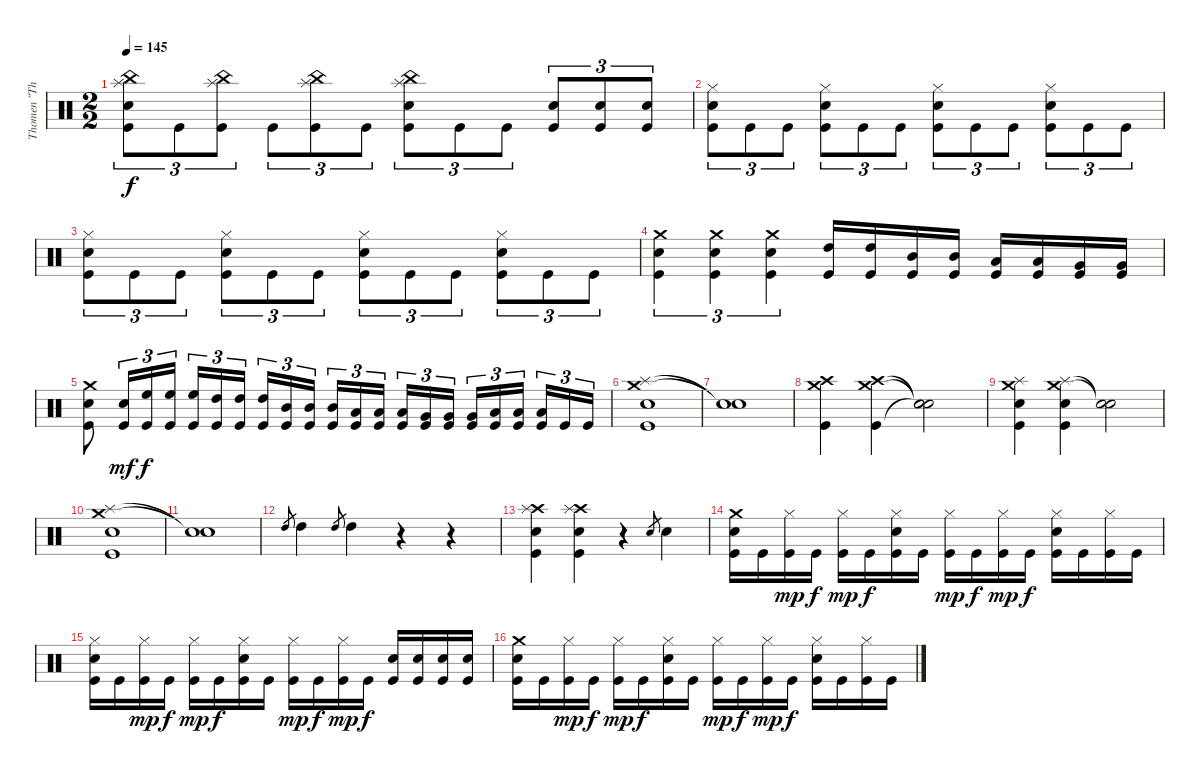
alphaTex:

\track ("Thomen \"The Omen\" Stauch" "Thomen \"Th") {instrument percussion}
\staff {score}
\articulation defaults
\ts (2 2)
\tempo 145
\clef neutral
\ks c
("Splash (hit)" "China (hit)" "Snare (hit) 2" "Kick (hit)").8{tu (3 2) dy f} "Kick (hit)".8{tu (3 2)} ("Splash (hit)" "China (hit)" "Kick (hit)").8{tu (3 2)} "Kick (hit)".8{tu (3 2)} ("Splash (hit)" "China (hit)" "Kick (hit)").8{tu (3 2)} "Kick (hit)".8{tu (3 2)} ("Splash (hit)" "China (hit)" "Snare (hit) 2" "Kick (hit)").8{tu (3 2)} "Kick (hit)".8{tu (3 2)} "Kick (hit)".8{tu (3 2)} ("Snare (hit) 2" "Kick (hit)").8{tu (3 2)} ("Snare (hit) 2" "Kick (hit)").8{tu (3 2)} ("Snare (hit) 2" "Kick (hit)").8{tu (3 2)} |
("Hi-Hat (closed)" "Snare (hit) 2" "Kick (hit)").8{tu (3 2)} "Kick (hit)".8{tu (3 2)} "Kick (hit)".8{tu (3 2)} ("Hi-Hat (closed)" "Snare (hit) 2" "Kick (hit)").8{tu (3 2)} "Kick (hit)".8{tu (3 2)} "Kick (hit)".8{tu (3 2)} ("Hi-Hat (closed)" "Snare (hit) 2" "Kick (hit)").8{tu (3 2)} "Kick (hit)".8{tu (3 2)} "Kick (hit)".8{tu (3 2)} ("Hi-Hat (closed)" "Snare (hit) 2" "Kick (hit)").8{tu (3 2)} "Kick (hit)".8{tu (3 2)} "Kick (hit)".8{tu (3 2)} |
("Hi-Hat (closed)" "Snare (hit) 2" "Kick (hit)").8{tu (3 2)} "Kick (hit)".8{tu (3 2)} "Kick (hit)".8{tu (3 2)} ("Hi-Hat (closed)" "Snare (hit) 2" "Kick (hit)").8{tu (3 2)} "Kick (hit)".8{tu (3 2)} "Kick (hit)".8{tu (3 2)} ("Hi-Hat (closed)" "Snare (hit) 2" "Kick (hit)").8{tu (3 2)} "Kick (hit)".8{tu (3 2)} "Kick (hit)".8{tu (3 2)} ("Hi-Hat (closed)" "Snare (hit) 2" "Kick (hit)").8{tu (3 2)} "Kick (hit)".8{tu (3 2)} "Kick (hit)".8{tu (3 2)} |
("Crash medium (hit)" "Snare (hit) 2" "Kick (hit)").4{tu (3 2)} ("Crash medium (hit)" "Snare (hit) 2" "Kick (hit)").4{tu (3 2)} ("Crash medium (hit)" "Snare (hit) 2" "Kick (hit)").4{tu (3 2)} ("High Tom (hit)" "Kick (hit)").16 ("High Tom (hit)" "Kick (hit)").16 ("Mid Tom (hit)" "Kick (hit)").16 ("Mid Tom (hit)" "Kick (hit)").16 ("Low Tom (hit)" "Kick (hit)").16 ("Low Tom (hit)" "Kick (hit)").16 ("Very Low Tom (hit)" "Kick (hit)").16 ("Very Low Tom (hit)" "Kick (hit)").16 |
("Crash medium (hit)" "Snare (hit) 2" "Kick (hit)").8 ("Snare (hit) 2" "Kick (hit)").16{tu (3 2) dy mf} ("High Floor Tom (hit)" "Kick (hit)").16{tu (3 2) dy f} ("High Floor Tom (hit)" "Kick (hit)").16{tu (3 2)} ("High Floor Tom (hit)" "Kick (hit)").16{tu (3 2)} ("High Tom (hit)" "Kick (hit)").16{tu (3 2)} ("High Tom (hit)" "Kick (hit)").16{tu (3 2)} ("High Tom (hit)" "Kick (hit)").16{tu (3 2)} ("Mid Tom (hit)" "Kick (hit)").16{tu (3 2)} ("Mid Tom (hit)" "Kick (hit)").16{tu (3 2)} ("Mid Tom (hit)" "Kick (hit)").16{tu (3 2)} ("Low Tom (hit)" "Kick (hit)").16{tu (3 2)} ("Low Tom (hit)" "Kick (hit)").16{tu (3 2)} ("Low Tom (hit)" "Kick (hit)").16{tu (3 2)} ("Very Low Tom (hit)" "Kick (hit)").16{tu (3 2)} ("Very Low Tom (hit)" "Kick (hit)").16{tu (3 2)} ("Very Low Tom (hit)" "Kick (hit)").16{tu (3 2)} ("Low Floor Tom (hit)" "Kick (hit)").16{tu (3 2)} ("Low Floor Tom (hit)" "Kick (hit)").16{tu (3 2)} ("Low Floor Tom (hit)" "Kick (hit)").16{tu (3 2)} "Kick (hit)".16{tu (3 2)} "Kick (hit)".16{tu (3 2)} |
("Crash medium (hit)" "Splash (hit)" "Snare (hit) 2" "Kick (hit)").1 |
("Snare (hit)"{t} "Snare (hit)"{t}).1 |
("Crash medium (hit)" "Crash high (hit)" "Kick (hit)").4 ("Crash medium (hit)" "Crash high (hit)" "Kick (hit)").4 ("Snare (hit)"{t} "Snare (hit)"{t} "Snare (hit)"{t}).2 |
("Crash medium (hit)" "Splash (hit)" "Snare (hit) 2" "Kick (hit)").4 ("Crash medium (hit)" "Splash (hit)" "Snare (hit) 2" "Kick (hit)").4 ("Snare (hit)"{t} "Snare (hit)"{t}).2 |
("Crash medium (hit)" "Splash (hit)" "Snare (hit) 2" "Kick (hit)").1 |
("Snare (hit)"{t} "Snare (hit)"{t}).1 |
"High Tom (hit)".8{gr} "High Tom (hit)".4 "High Tom (hit)".8{gr} "High Tom (hit)".4 r.4 r.4 |
("Crash high (hit)" "Splash (hit)" "Snare (hit) 2" "Kick (hit)").4 ("Crash high (hit)" "Splash (hit)" "Snare (hit) 2" "Kick (hit)").4 r.4 "Snare (hit) 2".8{gr} "Snare (hit) 2".4 |
("Crash medium (hit)" "Snare (hit) 2" "Kick (hit)").16 "Kick (hit)".16 ("Hi-Hat (closed)" "Kick (hit)").16{dy mp} "Kick (hit)".16{dy f} ("Hi-Hat (closed)" "Kick (hit)").16{dy mp} "Kick (hit)".16{dy f} ("Hi-Hat (closed)" "Snare (hit) 2" "Kick (hit)").16 "Kick (hit)".16 ("Hi-Hat (closed)" "Kick (hit)").16{dy mp} "Kick (hit)".16{dy f} ("Hi-Hat (closed)" "Kick (hit)").16{dy mp} "Kick (hit)".16{dy f} ("Hi-Hat (closed)" "Snare (hit) 2" "Kick (hit)").16 "Kick (hit)".16 ("Hi-Hat (closed)" "Kick (hit)").16 "Kick (hit)".16 |
("Hi-Hat (closed)" "Snare (hit) 2" "Kick (hit)").16 "Kick (hit)".16 ("Hi-Hat (closed)" "Kick (hit)").16{dy mp} "Kick (hit)".16{dy f} ("Hi-Hat (closed)" "Kick (hit)").16{dy mp} "Kick (hit)".16{dy f} ("Hi-Hat (closed)" "Snare (hit) 2" "Kick (hit)").16 "Kick (hit)".16 ("Hi-Hat (closed)" "Kick (hit)").16{dy mp} "Kick (hit)".16{dy f} ("Hi-Hat (closed)" "Kick (hit)").16{dy mp} "Kick (hit)".16{dy f} ("Snare (hit) 2" "Kick (hit)").16 ("Snare (hit) 2" "Kick (hit)").16 ("Snare (hit) 2" "Kick (hit)").16 ("Snare (hit) 2" "Kick (hit)").16 |
("Crash medium (hit)" "Snare (hit) 2" "Kick (hit)").16 "Kick (hit)".16 ("Hi-Hat (closed)" "Kick (hit)").16{dy mp} "Kick (hit)".16{dy f} ("Hi-Hat (closed)" "Kick (hit)").16{dy mp} "Kick (hit)".16{dy f} ("Hi-Hat (closed)" "Snare (hit) 2" "Kick (hit)").16 "Kick (hit)".16 ("Hi-Hat (closed)" "Kick (hit)").16{dy mp} "Kick (hit)".16{dy f} ("Hi-Hat (closed)" "Kick (hit)").16{dy mp} "Kick (hit)".16{dy f} ("Hi-Hat (closed)" "Snare (hit) 2" "Kick (hit)").16 "Kick (hit)".16 ("Hi-Hat (closed)" "Kick (hit)").16 "Kick (hit)".16
